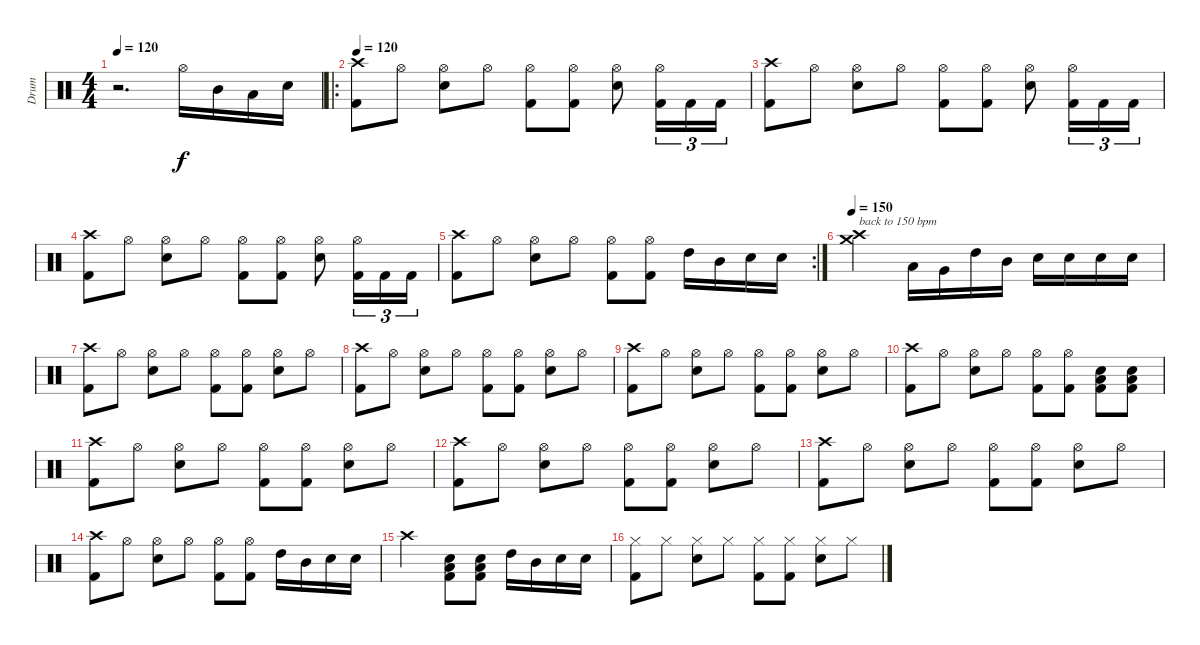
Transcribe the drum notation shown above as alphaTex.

\track ("Drum" "Drum") {instrument percussion}
\staff {score}
\articulation defaults
\ts (4 4)
\tempo 120
\clef neutral
\ks c
r.2{d dy f} "Hi-Hat (open)".16 "Mid Tom (hit)".16 "Low Tom (hit)".16 "Electric Snare (hit)".16 |
\ro
\tempo 120
("Crash high (hit)" "Kick (hit) 2").8 "Hi-Hat (open)".8 ("Hi-Hat (open)" "Electric Snare (hit)").8 "Hi-Hat (open)".8 ("Hi-Hat (open)" "Kick (hit) 2").8 ("Hi-Hat (open)" "Kick (hit) 2").8 ("Hi-Hat (open)" "Electric Snare (hit)").8 ("Hi-Hat (open)" "Kick (hit) 2").16{tu (3 2)} "Kick (hit) 2".16{tu (3 2)} "Kick (hit) 2".16{tu (3 2)} |
("Crash high (hit)" "Kick (hit) 2").8 "Hi-Hat (open)".8 ("Hi-Hat (open)" "Electric Snare (hit)").8 "Hi-Hat (open)".8 ("Hi-Hat (open)" "Kick (hit) 2").8 ("Hi-Hat (open)" "Kick (hit) 2").8 ("Hi-Hat (open)" "Electric Snare (hit)").8 ("Hi-Hat (open)" "Kick (hit) 2").16{tu (3 2)} "Kick (hit) 2".16{tu (3 2)} "Kick (hit) 2".16{tu (3 2)} |
("Crash high (hit)" "Kick (hit) 2").8 "Hi-Hat (open)".8 ("Hi-Hat (open)" "Electric Snare (hit)").8 "Hi-Hat (open)".8 ("Hi-Hat (open)" "Kick (hit) 2").8 ("Hi-Hat (open)" "Kick (hit) 2").8 ("Hi-Hat (open)" "Electric Snare (hit)").8 ("Hi-Hat (open)" "Kick (hit) 2").16{tu (3 2)} "Kick (hit) 2".16{tu (3 2)} "Kick (hit) 2".16{tu (3 2)} |
\rc 2
("Crash high (hit)" "Kick (hit) 2").8 "Hi-Hat (open)".8 ("Hi-Hat (open)" "Electric Snare (hit)").8 "Hi-Hat (open)".8 ("Hi-Hat (open)" "Kick (hit) 2").8 ("Hi-Hat (open)" "Kick (hit) 2").8 "High Tom (hit)".16 "Mid Tom (hit)".16 "Electric Snare (hit)".16 "Electric Snare (hit)".16 |
\tempo 150
("Crash high (hit)" "Crash medium (hit)").2{txt "back to 150 bpm"} "Low Tom (hit)".16 "Very Low Tom (hit)".16 "High Tom (hit)".16 "Mid Tom (hit)".16 "Electric Snare (hit)".16{volume 10} "Electric Snare (hit)".16{volume 12} "Electric Snare (hit)".16{volume 13} "Electric Snare (hit)".16{volume 16} |
("Crash high (hit)" "Kick (hit) 2").8 "Hi-Hat (open)".8 ("Hi-Hat (open)" "Electric Snare (hit)").8 "Hi-Hat (open)".8 ("Hi-Hat (open)" "Kick (hit) 2").8 ("Hi-Hat (open)" "Kick (hit) 2").8 ("Hi-Hat (open)" "Electric Snare (hit)").8 "Hi-Hat (open)".8 |
("Crash high (hit)" "Kick (hit) 2").8 "Hi-Hat (open)".8 ("Hi-Hat (open)" "Electric Snare (hit)").8 "Hi-Hat (open)".8 ("Hi-Hat (open)" "Kick (hit) 2").8 ("Hi-Hat (open)" "Kick (hit) 2").8 ("Hi-Hat (open)" "Electric Snare (hit)").8 "Hi-Hat (open)".8 |
("Crash high (hit)" "Kick (hit) 2").8 "Hi-Hat (open)".8 ("Hi-Hat (open)" "Electric Snare (hit)").8 "Hi-Hat (open)".8 ("Hi-Hat (open)" "Kick (hit) 2").8 ("Hi-Hat (open)" "Kick (hit) 2").8 ("Hi-Hat (open)" "Electric Snare (hit)").8 "Hi-Hat (open)".8 |
("Crash high (hit)" "Kick (hit) 2").8 "Hi-Hat (open)".8 ("Hi-Hat (open)" "Electric Snare (hit)").8 "Hi-Hat (open)".8 ("Hi-Hat (open)" "Kick (hit) 2").8 ("Hi-Hat (open)" "Kick (hit) 2").8 ("Low Floor Tom (hit)" "Electric Snare (hit)" "Kick (hit) 2").8{volume 16} ("Low Floor Tom (hit)" "Electric Snare (hit)" "Kick (hit) 2").8{volume 16} |
("Crash high (hit)" "Kick (hit) 2").8 "Hi-Hat (open)".8 ("Hi-Hat (open)" "Electric Snare (hit)").8 "Hi-Hat (open)".8 ("Hi-Hat (open)" "Kick (hit) 2").8 ("Hi-Hat (open)" "Kick (hit) 2").8 ("Hi-Hat (open)" "Electric Snare (hit)").8 "Hi-Hat (open)".8 |
("Crash high (hit)" "Kick (hit) 2").8 "Hi-Hat (open)".8 ("Hi-Hat (open)" "Electric Snare (hit)").8 "Hi-Hat (open)".8 ("Hi-Hat (open)" "Kick (hit) 2").8 ("Hi-Hat (open)" "Kick (hit) 2").8 ("Hi-Hat (open)" "Electric Snare (hit)").8 "Hi-Hat (open)".8 |
("Crash high (hit)" "Kick (hit) 2").8 "Hi-Hat (open)".8 ("Hi-Hat (open)" "Electric Snare (hit)").8 "Hi-Hat (open)".8 ("Hi-Hat (open)" "Kick (hit) 2").8 ("Hi-Hat (open)" "Kick (hit) 2").8 ("Hi-Hat (open)" "Electric Snare (hit)").8 "Hi-Hat (open)".8 |
("Crash high (hit)" "Kick (hit) 2").8 "Hi-Hat (open)".8 ("Hi-Hat (open)" "Electric Snare (hit)").8 "Hi-Hat (open)".8 ("Hi-Hat (open)" "Kick (hit) 2").8 ("Hi-Hat (open)" "Kick (hit) 2").8 "High Tom (hit)".16 "Mid Tom (hit)".16 "Electric Snare (hit)".16 "Electric Snare (hit)".16 |
"Crash high (hit)".2 ("Low Floor Tom (hit)" "Electric Snare (hit)" "Kick (hit) 2").8{volume 16} ("Low Floor Tom (hit)" "Electric Snare (hit)" "Kick (hit) 2").8{volume 16} "High Tom (hit)".16 "Mid Tom (hit)".16 "Electric Snare (hit)".16 "Electric Snare (hit)".16 |
("Hi-Hat (closed)" "Kick (hit) 2").8 "Hi-Hat (closed)".8 ("Hi-Hat (closed)" "Electric Snare (hit)").8 "Hi-Hat (closed)".8 ("Hi-Hat (closed)" "Kick (hit) 2").8 ("Hi-Hat (closed)" "Kick (hit) 2").8 ("Hi-Hat (closed)" "Electric Snare (hit)").8 "Hi-Hat (closed)".8
